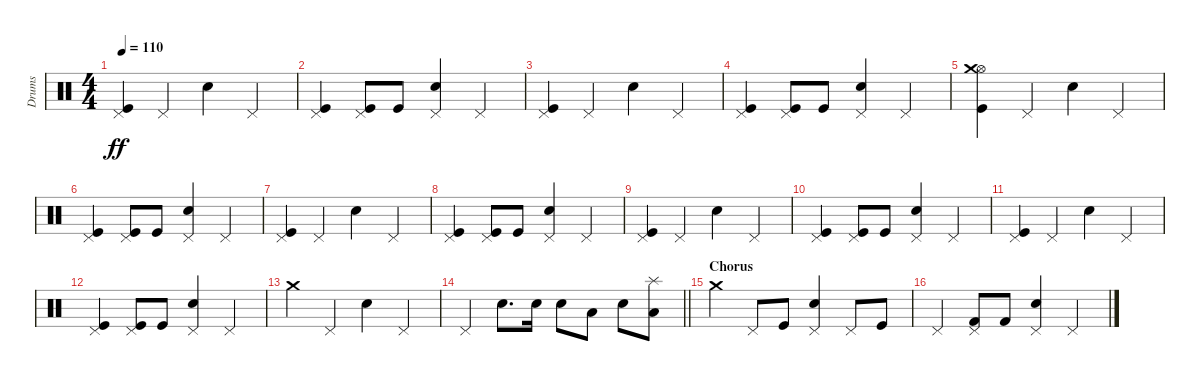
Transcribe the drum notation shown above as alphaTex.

\track ("Drums" "Drums") {instrument percussion}
\staff {score}
\articulation defaults
\ts (4 4)
\tempo 110
\clef neutral
\ks c
("Kick (hit)" "Pedal Hi-Hat (hit)").4{dy ff} "Pedal Hi-Hat (hit)".4 "Electric Snare (hit)".4 "Pedal Hi-Hat (hit)".4 |
("Kick (hit)" "Pedal Hi-Hat (hit)").4 ("Kick (hit)" "Pedal Hi-Hat (hit)").8 "Kick (hit)".8 ("Electric Snare (hit)" "Pedal Hi-Hat (hit)").4 "Pedal Hi-Hat (hit)".4 |
("Kick (hit)" "Pedal Hi-Hat (hit)").4 "Pedal Hi-Hat (hit)".4 "Electric Snare (hit)".4 "Pedal Hi-Hat (hit)".4 |
("Kick (hit)" "Pedal Hi-Hat (hit)").4 ("Kick (hit)" "Pedal Hi-Hat (hit)").8 "Kick (hit)".8 ("Electric Snare (hit)" "Pedal Hi-Hat (hit)").4 "Pedal Hi-Hat (hit)".4 |
("Kick (hit)" "Hi-Hat (open)" "Crash medium (hit)").4 "Pedal Hi-Hat (hit)".4 "Electric Snare (hit)".4 "Pedal Hi-Hat (hit)".4 |
("Kick (hit)" "Pedal Hi-Hat (hit)").4 ("Kick (hit)" "Pedal Hi-Hat (hit)").8 "Kick (hit)".8 ("Electric Snare (hit)" "Pedal Hi-Hat (hit)").4 "Pedal Hi-Hat (hit)".4 |
("Kick (hit)" "Pedal Hi-Hat (hit)").4 "Pedal Hi-Hat (hit)".4 "Electric Snare (hit)".4 "Pedal Hi-Hat (hit)".4 |
("Kick (hit)" "Pedal Hi-Hat (hit)").4 ("Kick (hit)" "Pedal Hi-Hat (hit)").8 "Kick (hit)".8 ("Electric Snare (hit)" "Pedal Hi-Hat (hit)").4 "Pedal Hi-Hat (hit)".4 |
("Kick (hit)" "Pedal Hi-Hat (hit)").4 "Pedal Hi-Hat (hit)".4 "Electric Snare (hit)".4 "Pedal Hi-Hat (hit)".4 |
("Kick (hit)" "Pedal Hi-Hat (hit)").4 ("Kick (hit)" "Pedal Hi-Hat (hit)").8 "Kick (hit)".8 ("Electric Snare (hit)" "Pedal Hi-Hat (hit)").4 "Pedal Hi-Hat (hit)".4 |
("Kick (hit)" "Pedal Hi-Hat (hit)").4 "Pedal Hi-Hat (hit)".4 "Electric Snare (hit)".4 "Pedal Hi-Hat (hit)".4 |
("Kick (hit)" "Pedal Hi-Hat (hit)").4 ("Kick (hit)" "Pedal Hi-Hat (hit)").8 "Kick (hit)".8 ("Electric Snare (hit)" "Pedal Hi-Hat (hit)").4 "Pedal Hi-Hat (hit)".4 |
"Crash medium (hit)".4 "Pedal Hi-Hat (hit)".4 "Electric Snare (hit)".4 "Pedal Hi-Hat (hit)".4 |
\barLineRight lightlight "Pedal Hi-Hat (hit)".4 "Electric Snare (hit)".8{d} "Electric Snare (hit)".16 "Electric Snare (hit)".8 "Low Floor Tom (hit)".8 "Electric Snare (hit)".8
("Low Floor Tom (hit)" "Splash (hit)").8 |
\section ("" "Chorus")
"Crash medium (hit)".4 "Pedal Hi-Hat (hit)".8 "Kick (hit)".8 ("Electric Snare (hit)" "Pedal Hi-Hat (hit)").4 "Pedal Hi-Hat (hit)".8 "Kick (hit)".8 |
"Pedal Hi-Hat (hit)".4 ("Kick (hit) 2" "Pedal Hi-Hat (hit)").8 "Kick (hit) 2".8 ("Electric Snare (hit)" "Pedal Hi-Hat (hit)").4 "Pedal Hi-Hat (hit)".4
